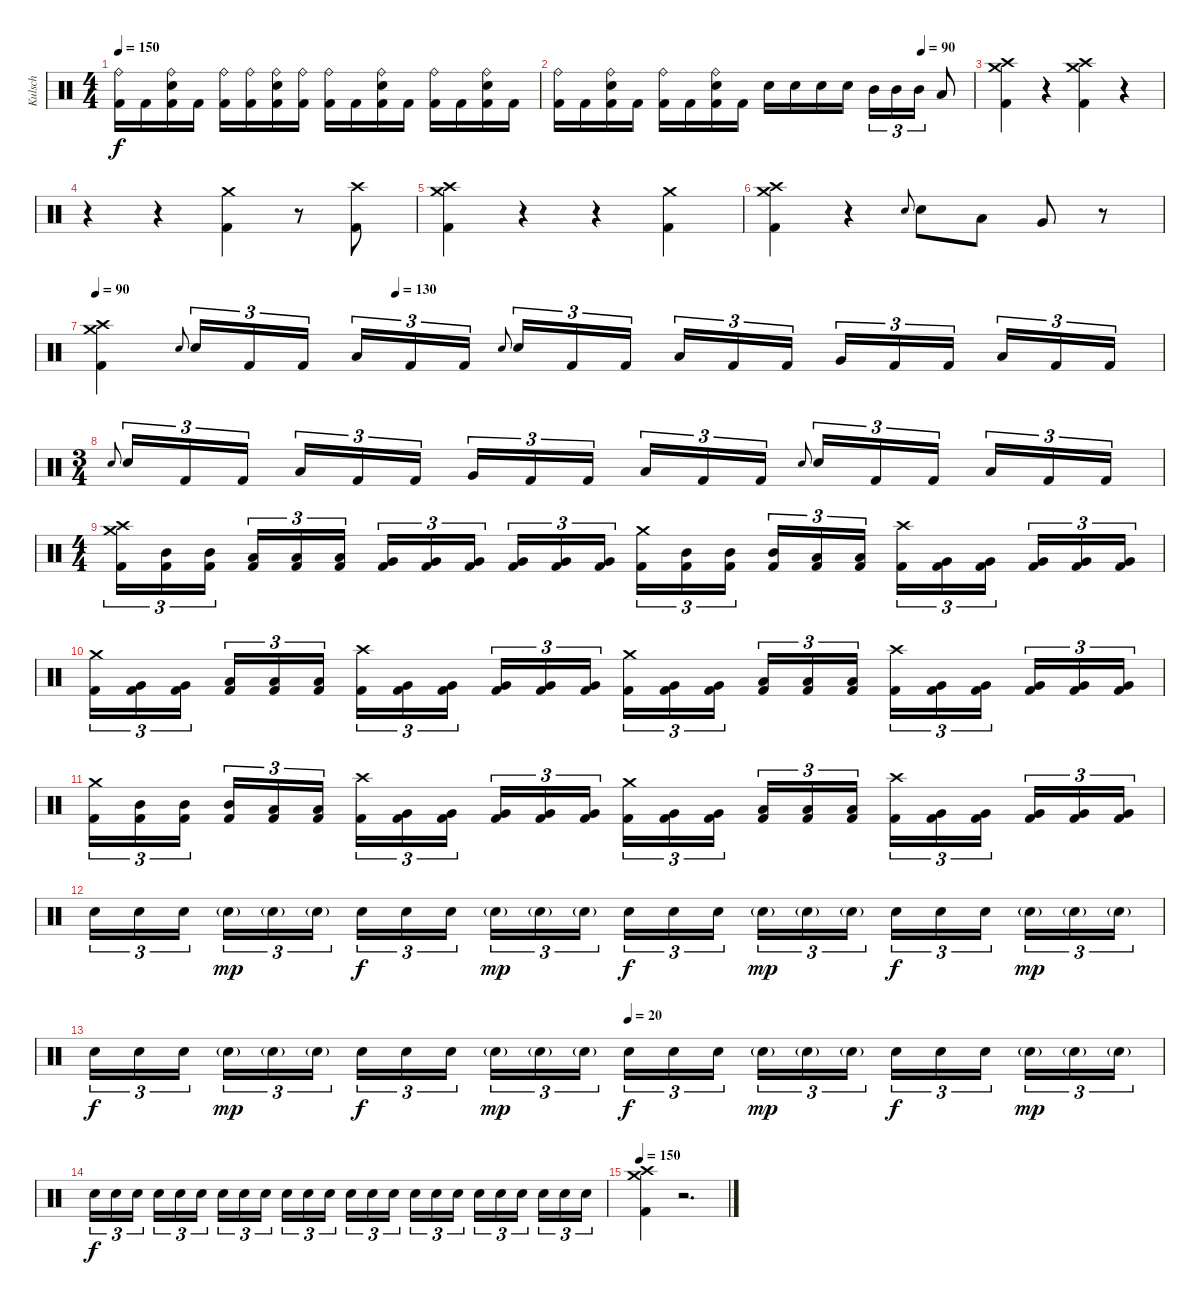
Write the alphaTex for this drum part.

\track ("Kulsch" "Kulsch") {instrument percussion}
\staff {score}
\articulation defaults
\ts (4 4)
\tempo 150
\clef neutral
\ks c
("Ride (bell)" "Kick (hit) 2").16{dy f} "Kick (hit) 2".16 ("Ride (bell)" "Snare (hit) 2" "Kick (hit) 2").16 "Kick (hit) 2".16 ("Ride (bell)" "Kick (hit) 2").16 ("Ride (bell)" "Kick (hit) 2").16 ("Ride (bell)" "Snare (hit) 2" "Kick (hit) 2").16 ("Ride (bell)" "Kick (hit) 2").16 ("Ride (bell)" "Kick (hit) 2").16 "Kick (hit) 2".16 ("Ride (bell)" "Snare (hit) 2" "Kick (hit) 2").16 "Kick (hit) 2".16 ("Ride (bell)" "Kick (hit) 2").16 "Kick (hit) 2".16 ("Ride (bell)" "Snare (hit) 2" "Kick (hit) 2").16 "Kick (hit) 2".16 |
\tempo (90 0.875)
("Ride (bell)" "Kick (hit) 2").16 "Kick (hit) 2".16 ("Ride (bell)" "Snare (hit) 2" "Kick (hit) 2").16 "Kick (hit) 2".16 ("Ride (bell)" "Kick (hit) 2").16 "Kick (hit) 2".16 ("Ride (bell)" "Snare (hit) 2" "Kick (hit) 2").16 "Kick (hit) 2".16 "Snare (hit) 2".16 "Snare (hit) 2".16 "Snare (hit) 2".16 "Snare (hit) 2".16 "Mid Tom (hit)".16{tu (3 2)} "Mid Tom (hit)".16{tu (3 2)} "Mid Tom (hit)".16{tu (3 2)} "Low Tom (hit)".8 |
("Crash medium (hit)" "Crash high (hit)" "Kick (hit) 2").4 r.4 ("Crash medium (hit)" "Crash high (hit)" "Kick (hit) 2").4 r.4 |
r.4 r.4 ("Crash medium (hit)" "Kick (hit) 2").4 r.8 ("Crash high (hit)" "Kick (hit) 2").8 |
("Crash medium (hit)" "Crash high (hit)" "Kick (hit) 2").4 r.4 r.4 ("Crash medium (hit)" "Kick (hit) 2").4 |
("Crash medium (hit)" "Crash high (hit)" "Kick (hit) 2").4 r.4 "Snare (hit) 2".8{gr onbeat} "Snare (hit) 2".8 "Low Tom (hit)".8 "Very Low Tom (hit)".8 r.8 |
\tempo 90
\tempo (130 0.28125)
("Crash medium (hit)" "Crash high (hit)" "Kick (hit) 2").4 "Snare (hit) 2".8{gr onbeat} "Snare (hit) 2".16{tu (3 2)} "Kick (hit) 2".16{tu (3 2)} "Kick (hit) 2".16{tu (3 2) beam splitsecondary} "Low Tom (hit)".16{tu (3 2)} "Kick (hit) 2".16{tu (3 2)} "Kick (hit) 2".16{tu (3 2)} "Snare (hit) 2".8{gr onbeat} "Snare (hit) 2".16{tu (3 2)} "Kick (hit) 2".16{tu (3 2)} "Kick (hit) 2".16{tu (3 2) beam splitsecondary} "Low Tom (hit)".16{tu (3 2)} "Kick (hit) 2".16{tu (3 2)} "Kick (hit) 2".16{tu (3 2)} "Very Low Tom (hit)".16{tu (3 2)} "Kick (hit) 2".16{tu (3 2)} "Kick (hit) 2".16{tu (3 2) beam splitsecondary} "Low Tom (hit)".16{tu (3 2)} "Kick (hit) 2".16{tu (3 2)} "Kick (hit) 2".16{tu (3 2)} |
\ts (3 4)
"Snare (hit) 2".8{gr onbeat} "Snare (hit) 2".16{tu (3 2)} "Kick (hit) 2".16{tu (3 2)} "Kick (hit) 2".16{tu (3 2) beam splitsecondary} "Low Tom (hit)".16{tu (3 2)} "Kick (hit) 2".16{tu (3 2)} "Kick (hit) 2".16{tu (3 2)} "Very Low Tom (hit)".16{tu (3 2)} "Kick (hit) 2".16{tu (3 2)} "Kick (hit) 2".16{tu (3 2) beam splitsecondary} "Low Tom (hit)".16{tu (3 2)} "Kick (hit) 2".16{tu (3 2)} "Kick (hit) 2".16{tu (3 2)} "Snare (hit) 2".8{gr onbeat} "Snare (hit) 2".16{tu (3 2)} "Kick (hit) 2".16{tu (3 2)} "Kick (hit) 2".16{tu (3 2) beam splitsecondary} "Low Tom (hit)".16{tu (3 2)} "Kick (hit) 2".16{tu (3 2)} "Kick (hit) 2".16{tu (3 2)} |
\ts (4 4)
("Crash medium (hit)" "Crash high (hit)" "Kick (hit) 2").16{tu (3 2)} ("Mid Tom (hit)" "Kick (hit) 2").16{tu (3 2)} ("Mid Tom (hit)" "Kick (hit) 2").16{tu (3 2) beam splitsecondary} ("Low Tom (hit)" "Kick (hit) 2").16{tu (3 2)} ("Low Tom (hit)" "Kick (hit) 2").16{tu (3 2)} ("Low Tom (hit)" "Kick (hit) 2").16{tu (3 2)} ("Very Low Tom (hit)" "Kick (hit) 2").16{tu (3 2)} ("Very Low Tom (hit)" "Kick (hit) 2").16{tu (3 2)} ("Very Low Tom (hit)" "Kick (hit) 2").16{tu (3 2) beam splitsecondary} ("Very Low Tom (hit)" "Kick (hit) 2").16{tu (3 2)} ("Very Low Tom (hit)" "Kick (hit) 2").16{tu (3 2)} ("Very Low Tom (hit)" "Kick (hit) 2").16{tu (3 2)} ("Crash medium (hit)" "Kick (hit) 2").16{tu (3 2)} ("Mid Tom (hit)" "Kick (hit) 2").16{tu (3 2)} ("Mid Tom (hit)" "Kick (hit) 2").16{tu (3 2) beam splitsecondary} ("Mid Tom (hit)" "Kick (hit) 2").16{tu (3 2)} ("Low Tom (hit)" "Kick (hit) 2").16{tu (3 2)} ("Low Tom (hit)" "Kick (hit) 2").16{tu (3 2)} ("Crash high (hit)" "Kick (hit) 2").16{tu (3 2)} ("Very Low Tom (hit)" "Kick (hit) 2").16{tu (3 2)} ("Very Low Tom (hit)" "Kick (hit) 2").16{tu (3 2) beam splitsecondary} ("Very Low Tom (hit)" "Kick (hit) 2").16{tu (3 2)} ("Very Low Tom (hit)" "Kick (hit) 2").16{tu (3 2)} ("Very Low Tom (hit)" "Kick (hit) 2").16{tu (3 2)} |
("Crash medium (hit)" "Kick (hit) 2").16{tu (3 2)} ("Very Low Tom (hit)" "Kick (hit) 2").16{tu (3 2)} ("Very Low Tom (hit)" "Kick (hit) 2").16{tu (3 2) beam splitsecondary} ("Low Tom (hit)" "Kick (hit) 2").16{tu (3 2)} ("Low Tom (hit)" "Kick (hit) 2").16{tu (3 2)} ("Low Tom (hit)" "Kick (hit) 2").16{tu (3 2)} ("Crash high (hit)" "Kick (hit) 2").16{tu (3 2)} ("Very Low Tom (hit)" "Kick (hit) 2").16{tu (3 2)} ("Very Low Tom (hit)" "Kick (hit) 2").16{tu (3 2) beam splitsecondary} ("Very Low Tom (hit)" "Kick (hit) 2").16{tu (3 2)} ("Very Low Tom (hit)" "Kick (hit) 2").16{tu (3 2)} ("Very Low Tom (hit)" "Kick (hit) 2").16{tu (3 2)} ("Crash medium (hit)" "Kick (hit) 2").16{tu (3 2)} ("Very Low Tom (hit)" "Kick (hit) 2").16{tu (3 2)} ("Very Low Tom (hit)" "Kick (hit) 2").16{tu (3 2) beam splitsecondary} ("Low Tom (hit)" "Kick (hit) 2").16{tu (3 2)} ("Low Tom (hit)" "Kick (hit) 2").16{tu (3 2)} ("Low Tom (hit)" "Kick (hit) 2").16{tu (3 2)} ("Crash high (hit)" "Kick (hit) 2").16{tu (3 2)} ("Very Low Tom (hit)" "Kick (hit) 2").16{tu (3 2)} ("Very Low Tom (hit)" "Kick (hit) 2").16{tu (3 2) beam splitsecondary} ("Very Low Tom (hit)" "Kick (hit) 2").16{tu (3 2)} ("Very Low Tom (hit)" "Kick (hit) 2").16{tu (3 2)} ("Very Low Tom (hit)" "Kick (hit) 2").16{tu (3 2)} |
("Crash medium (hit)" "Kick (hit) 2").16{tu (3 2)} ("Mid Tom (hit)" "Kick (hit) 2").16{tu (3 2)} ("Mid Tom (hit)" "Kick (hit) 2").16{tu (3 2) beam splitsecondary} ("Mid Tom (hit)" "Kick (hit) 2").16{tu (3 2)} ("Low Tom (hit)" "Kick (hit) 2").16{tu (3 2)} ("Low Tom (hit)" "Kick (hit) 2").16{tu (3 2)} ("Crash high (hit)" "Kick (hit) 2").16{tu (3 2)} ("Very Low Tom (hit)" "Kick (hit) 2").16{tu (3 2)} ("Very Low Tom (hit)" "Kick (hit) 2").16{tu (3 2) beam splitsecondary} ("Very Low Tom (hit)" "Kick (hit) 2").16{tu (3 2)} ("Very Low Tom (hit)" "Kick (hit) 2").16{tu (3 2)} ("Very Low Tom (hit)" "Kick (hit) 2").16{tu (3 2)} ("Crash medium (hit)" "Kick (hit) 2").16{tu (3 2)} ("Very Low Tom (hit)" "Kick (hit) 2").16{tu (3 2)} ("Very Low Tom (hit)" "Kick (hit) 2").16{tu (3 2) beam splitsecondary} ("Low Tom (hit)" "Kick (hit) 2").16{tu (3 2)} ("Low Tom (hit)" "Kick (hit) 2").16{tu (3 2)} ("Low Tom (hit)" "Kick (hit) 2").16{tu (3 2)} ("Crash high (hit)" "Kick (hit) 2").16{tu (3 2)} ("Very Low Tom (hit)" "Kick (hit) 2").16{tu (3 2)} ("Very Low Tom (hit)" "Kick (hit) 2").16{tu (3 2) beam splitsecondary} ("Very Low Tom (hit)" "Kick (hit) 2").16{tu (3 2)} ("Very Low Tom (hit)" "Kick (hit) 2").16{tu (3 2)} ("Very Low Tom (hit)" "Kick (hit) 2").16{tu (3 2)} |
"Snare (hit) 2".16{tu (3 2)} "Snare (hit) 2".16{tu (3 2)} "Snare (hit) 2".16{tu (3 2) beam splitsecondary} "Snare (hit) 2"{g}.16{tu (3 2) dy mp} "Snare (hit) 2"{g}.16{tu (3 2)} "Snare (hit) 2"{g}.16{tu (3 2)} "Snare (hit) 2".16{tu (3 2) dy f} "Snare (hit) 2".16{tu (3 2)} "Snare (hit) 2".16{tu (3 2) beam splitsecondary} "Snare (hit) 2"{g}.16{tu (3 2) dy mp} "Snare (hit) 2"{g}.16{tu (3 2)} "Snare (hit) 2"{g}.16{tu (3 2)} "Snare (hit) 2".16{tu (3 2) dy f} "Snare (hit) 2".16{tu (3 2)} "Snare (hit) 2".16{tu (3 2) beam splitsecondary} "Snare (hit) 2"{g}.16{tu (3 2) dy mp} "Snare (hit) 2"{g}.16{tu (3 2)} "Snare (hit) 2"{g}.16{tu (3 2)} "Snare (hit) 2".16{tu (3 2) dy f} "Snare (hit) 2".16{tu (3 2)} "Snare (hit) 2".16{tu (3 2) beam splitsecondary} "Snare (hit) 2"{g}.16{tu (3 2) dy mp} "Snare (hit) 2"{g}.16{tu (3 2)} "Snare (hit) 2"{g}.16{tu (3 2)} |
\tempo (20 0.5)
"Snare (hit) 2".16{tu (3 2) dy f} "Snare (hit) 2".16{tu (3 2)} "Snare (hit) 2".16{tu (3 2) beam splitsecondary} "Snare (hit) 2"{g}.16{tu (3 2) dy mp} "Snare (hit) 2"{g}.16{tu (3 2)} "Snare (hit) 2"{g}.16{tu (3 2)} "Snare (hit) 2".16{tu (3 2) dy f} "Snare (hit) 2".16{tu (3 2)} "Snare (hit) 2".16{tu (3 2) beam splitsecondary} "Snare (hit) 2"{g}.16{tu (3 2) dy mp} "Snare (hit) 2"{g}.16{tu (3 2)} "Snare (hit) 2"{g}.16{tu (3 2)} "Snare (hit) 2".16{tu (3 2) dy f} "Snare (hit) 2".16{tu (3 2)} "Snare (hit) 2".16{tu (3 2) beam splitsecondary} "Snare (hit) 2"{g}.16{tu (3 2) dy mp} "Snare (hit) 2"{g}.16{tu (3 2)} "Snare (hit) 2"{g}.16{tu (3 2)} "Snare (hit) 2".16{tu (3 2) dy f} "Snare (hit) 2".16{tu (3 2)} "Snare (hit) 2".16{tu (3 2) beam splitsecondary} "Snare (hit) 2"{g}.16{tu (3 2) dy mp} "Snare (hit) 2"{g}.16{tu (3 2)} "Snare (hit) 2"{g}.16{tu (3 2)} |
"Snare (hit) 2".16{tu (3 2) dy f} "Snare (hit) 2".16{tu (3 2)} "Snare (hit) 2".16{tu (3 2) beam splitsecondary} "Snare (hit) 2".16{tu (3 2)} "Snare (hit) 2".16{tu (3 2)} "Snare (hit) 2".16{tu (3 2)} "Snare (hit) 2".16{tu (3 2)} "Snare (hit) 2".16{tu (3 2)} "Snare (hit) 2".16{tu (3 2) beam splitsecondary} "Snare (hit) 2".16{tu (3 2)} "Snare (hit) 2".16{tu (3 2)} "Snare (hit) 2".16{tu (3 2)} "Snare (hit) 2".16{tu (3 2)} "Snare (hit) 2".16{tu (3 2)} "Snare (hit) 2".16{tu (3 2) beam splitsecondary} "Snare (hit) 2".16{tu (3 2)} "Snare (hit) 2".16{tu (3 2)} "Snare (hit) 2".16{tu (3 2)} "Snare (hit) 2".16{tu (3 2)} "Snare (hit) 2".16{tu (3 2)} "Snare (hit) 2".16{tu (3 2) beam splitsecondary} "Snare (hit) 2".16{tu (3 2)} "Snare (hit) 2".16{tu (3 2)} "Snare (hit) 2".16{tu (3 2)} |
\tempo 150
("Crash medium (hit)" "Crash high (hit)" "Kick (hit) 2").4 r.2{d}
